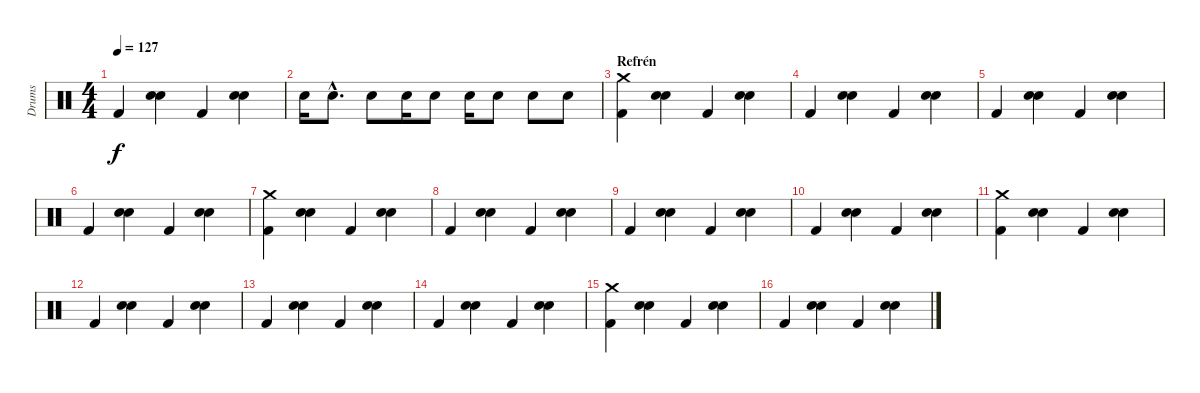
\track ("Drums" "Drums") {instrument percussion}
\staff {score}
\articulation defaults
\ts (4 4)
\tempo 127
\clef neutral
\ks c "Kick (hit) 2".4{dy f}
("Electric Snare (hit)" "Hand Clap (hit)").4 "Kick (hit) 2".4 ("Electric Snare (hit)" "Hand Clap (hit)").4 |
"Electric Snare (hit)".16 "Electric Snare (hit)"{hac}.8{d} "Electric Snare (hit)".8 "Electric Snare (hit)".16 "Electric Snare (hit)".8 "Electric Snare (hit)".16 "Electric Snare (hit)".8 "Electric Snare (hit)".8 "Electric Snare (hit)".8 |
\section ("" "Refrén")
("Kick (hit) 2" "Crash medium (hit)").4 ("Electric Snare (hit)" "Hand Clap (hit)").4 "Kick (hit) 2".4 ("Electric Snare (hit)" "Hand Clap (hit)").4 |
"Kick (hit) 2".4 ("Electric Snare (hit)" "Hand Clap (hit)").4 "Kick (hit) 2".4 ("Electric Snare (hit)" "Hand Clap (hit)").4 |
"Kick (hit) 2".4 ("Electric Snare (hit)" "Hand Clap (hit)").4 "Kick (hit) 2".4 ("Electric Snare (hit)" "Hand Clap (hit)").4 |
"Kick (hit) 2".4 ("Electric Snare (hit)" "Hand Clap (hit)").4 "Kick (hit) 2".4 ("Electric Snare (hit)" "Hand Clap (hit)").4 |
("Kick (hit) 2" "Crash medium (hit)").4 ("Electric Snare (hit)" "Hand Clap (hit)").4 "Kick (hit) 2".4 ("Electric Snare (hit)" "Hand Clap (hit)").4 |
"Kick (hit) 2".4 ("Electric Snare (hit)" "Hand Clap (hit)").4 "Kick (hit) 2".4 ("Electric Snare (hit)" "Hand Clap (hit)").4 |
"Kick (hit) 2".4 ("Electric Snare (hit)" "Hand Clap (hit)").4 "Kick (hit) 2".4 ("Electric Snare (hit)" "Hand Clap (hit)").4 |
"Kick (hit) 2".4 ("Electric Snare (hit)" "Hand Clap (hit)").4 "Kick (hit) 2".4 ("Electric Snare (hit)" "Hand Clap (hit)").4 |
("Kick (hit) 2" "Crash medium (hit)").4 ("Electric Snare (hit)" "Hand Clap (hit)").4 "Kick (hit) 2".4 ("Electric Snare (hit)" "Hand Clap (hit)").4 |
"Kick (hit) 2".4 ("Electric Snare (hit)" "Hand Clap (hit)").4 "Kick (hit) 2".4 ("Electric Snare (hit)" "Hand Clap (hit)").4 |
"Kick (hit) 2".4 ("Electric Snare (hit)" "Hand Clap (hit)").4 "Kick (hit) 2".4 ("Electric Snare (hit)" "Hand Clap (hit)").4 |
"Kick (hit) 2".4 ("Electric Snare (hit)" "Hand Clap (hit)").4 "Kick (hit) 2".4 ("Electric Snare (hit)" "Hand Clap (hit)").4 |
("Kick (hit) 2" "Crash medium (hit)").4 ("Electric Snare (hit)" "Hand Clap (hit)").4 "Kick (hit) 2".4 ("Electric Snare (hit)" "Hand Clap (hit)").4 |
"Kick (hit) 2".4 ("Electric Snare (hit)" "Hand Clap (hit)").4 "Kick (hit) 2".4 ("Electric Snare (hit)" "Hand Clap (hit)").4
